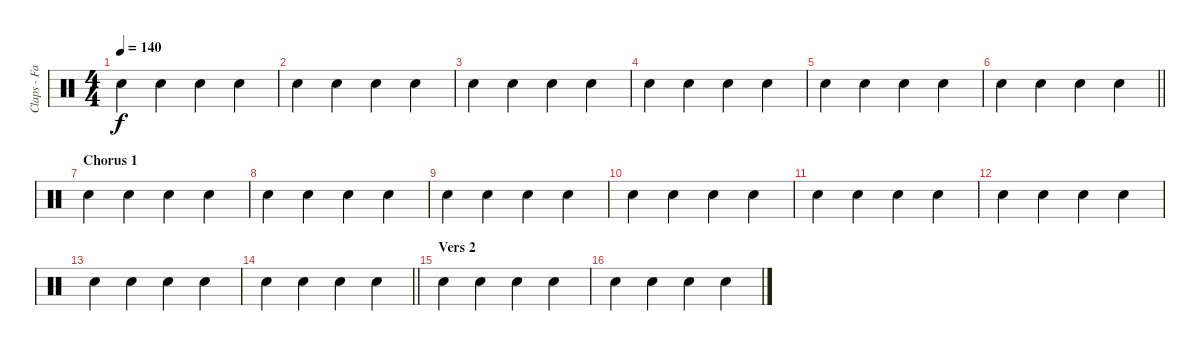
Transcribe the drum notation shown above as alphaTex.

\track ("Claps - Fans" "Claps - Fa") {instrument percussion}
\staff {score}
\articulation defaults
\ts (4 4)
\tempo 140
\clef neutral
\ks c "Hand Clap (hit)".4{dy f} "Hand Clap (hit)".4 "Hand Clap (hit)".4 "Hand Clap (hit)".4
|
"Hand Clap (hit)".4 "Hand Clap (hit)".4 "Hand Clap (hit)".4 "Hand Clap (hit)".4 |
"Hand Clap (hit)".4 "Hand Clap (hit)".4 "Hand Clap (hit)".4 "Hand Clap (hit)".4 |
"Hand Clap (hit)".4 "Hand Clap (hit)".4 "Hand Clap (hit)".4 "Hand Clap (hit)".4 |
"Hand Clap (hit)".4 "Hand Clap (hit)".4 "Hand Clap (hit)".4 "Hand Clap (hit)".4 |
\barLineRight lightlight "Hand Clap (hit)".4 "Hand Clap (hit)".4 "Hand Clap (hit)".4 "Hand Clap (hit)".4
|
\section ("" "Chorus 1")
"Hand Clap (hit)".4 "Hand Clap (hit)".4 "Hand Clap (hit)".4 "Hand Clap (hit)".4 |
"Hand Clap (hit)".4 "Hand Clap (hit)".4 "Hand Clap (hit)".4 "Hand Clap (hit)".4 |
"Hand Clap (hit)".4 "Hand Clap (hit)".4 "Hand Clap (hit)".4 "Hand Clap (hit)".4 |
"Hand Clap (hit)".4 "Hand Clap (hit)".4 "Hand Clap (hit)".4 "Hand Clap (hit)".4 |
"Hand Clap (hit)".4 "Hand Clap (hit)".4 "Hand Clap (hit)".4 "Hand Clap (hit)".4 |
"Hand Clap (hit)".4 "Hand Clap (hit)".4 "Hand Clap (hit)".4 "Hand Clap (hit)".4 |
"Hand Clap (hit)".4 "Hand Clap (hit)".4 "Hand Clap (hit)".4 "Hand Clap (hit)".4 |
\barLineRight lightlight "Hand Clap (hit)".4 "Hand Clap (hit)".4 "Hand Clap (hit)".4 "Hand Clap (hit)".4
|
\section ("" "Vers 2")
"Hand Clap (hit)".4 "Hand Clap (hit)".4 "Hand Clap (hit)".4 "Hand Clap (hit)".4 |
"Hand Clap (hit)".4 "Hand Clap (hit)".4 "Hand Clap (hit)".4 "Hand Clap (hit)".4
